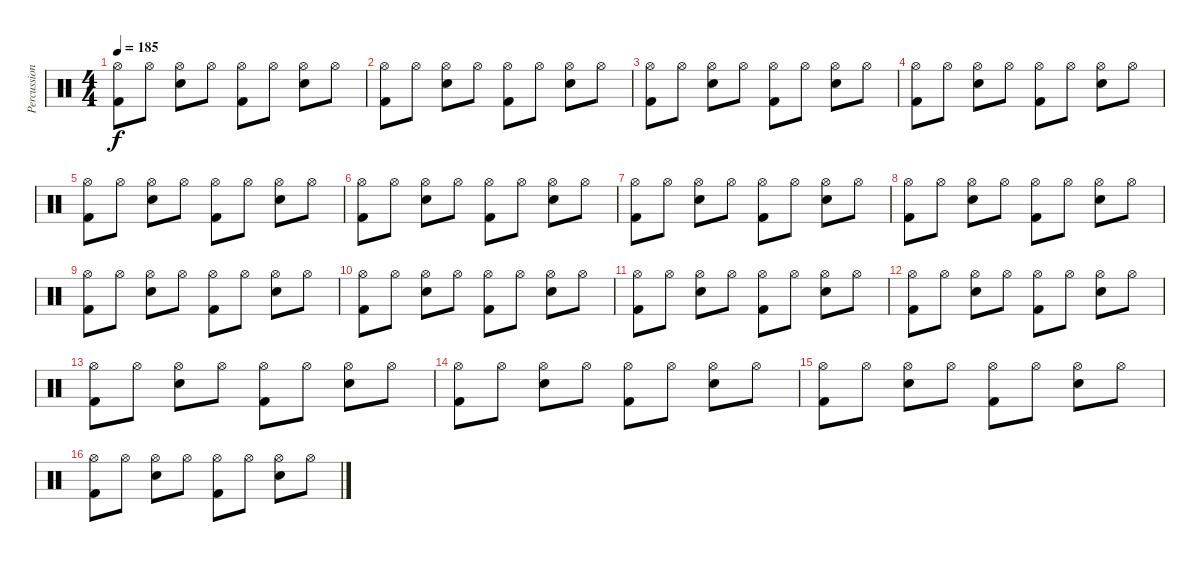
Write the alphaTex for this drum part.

\track ("Percussion" "Percussion") {instrument percussion}
\staff {score}
\articulation defaults
\ts (4 4)
\tempo 185
\clef neutral
\ks c
("Hi-Hat (open)" "Kick (hit) 2").8{dy f} "Hi-Hat (open)".8 ("Hi-Hat (open)" "Snare (hit) 2").8 "Hi-Hat (open)".8 ("Hi-Hat (open)" "Kick (hit) 2").8 "Hi-Hat (open)".8 ("Hi-Hat (open)" "Snare (hit) 2").8 "Hi-Hat (open)".8 |
("Hi-Hat (open)" "Kick (hit) 2").8 "Hi-Hat (open)".8 ("Hi-Hat (open)" "Snare (hit) 2").8 "Hi-Hat (open)".8 ("Hi-Hat (open)" "Kick (hit) 2").8 "Hi-Hat (open)".8 ("Hi-Hat (open)" "Snare (hit) 2").8 "Hi-Hat (open)".8 |
("Hi-Hat (open)" "Kick (hit) 2").8 "Hi-Hat (open)".8 ("Hi-Hat (open)" "Snare (hit) 2").8 "Hi-Hat (open)".8 ("Hi-Hat (open)" "Kick (hit) 2").8 "Hi-Hat (open)".8 ("Hi-Hat (open)" "Snare (hit) 2").8 "Hi-Hat (open)".8 |
("Hi-Hat (open)" "Kick (hit) 2").8 "Hi-Hat (open)".8 ("Hi-Hat (open)" "Snare (hit) 2").8 "Hi-Hat (open)".8 ("Hi-Hat (open)" "Kick (hit) 2").8 "Hi-Hat (open)".8 ("Hi-Hat (open)" "Snare (hit) 2").8 "Hi-Hat (open)".8 |
("Hi-Hat (open)" "Kick (hit) 2").8 "Hi-Hat (open)".8 ("Hi-Hat (open)" "Snare (hit) 2").8 "Hi-Hat (open)".8 ("Hi-Hat (open)" "Kick (hit) 2").8 "Hi-Hat (open)".8 ("Hi-Hat (open)" "Snare (hit) 2").8 "Hi-Hat (open)".8 |
("Hi-Hat (open)" "Kick (hit) 2").8 "Hi-Hat (open)".8 ("Hi-Hat (open)" "Snare (hit) 2").8 "Hi-Hat (open)".8 ("Hi-Hat (open)" "Kick (hit) 2").8 "Hi-Hat (open)".8 ("Hi-Hat (open)" "Snare (hit) 2").8 "Hi-Hat (open)".8 |
("Hi-Hat (open)" "Kick (hit) 2").8 "Hi-Hat (open)".8 ("Hi-Hat (open)" "Snare (hit) 2").8 "Hi-Hat (open)".8 ("Hi-Hat (open)" "Kick (hit) 2").8 "Hi-Hat (open)".8 ("Hi-Hat (open)" "Snare (hit) 2").8 "Hi-Hat (open)".8 |
("Hi-Hat (open)" "Kick (hit) 2").8 "Hi-Hat (open)".8 ("Hi-Hat (open)" "Snare (hit) 2").8 "Hi-Hat (open)".8 ("Hi-Hat (open)" "Kick (hit) 2").8 "Hi-Hat (open)".8 ("Hi-Hat (open)" "Snare (hit) 2").8 "Hi-Hat (open)".8 |
("Hi-Hat (open)" "Kick (hit) 2").8 "Hi-Hat (open)".8 ("Hi-Hat (open)" "Snare (hit) 2").8 "Hi-Hat (open)".8 ("Hi-Hat (open)" "Kick (hit) 2").8 "Hi-Hat (open)".8 ("Hi-Hat (open)" "Snare (hit) 2").8 "Hi-Hat (open)".8 |
("Hi-Hat (open)" "Kick (hit) 2").8 "Hi-Hat (open)".8 ("Hi-Hat (open)" "Snare (hit) 2").8 "Hi-Hat (open)".8 ("Hi-Hat (open)" "Kick (hit) 2").8 "Hi-Hat (open)".8 ("Hi-Hat (open)" "Snare (hit) 2").8 "Hi-Hat (open)".8 |
("Hi-Hat (open)" "Kick (hit) 2").8 "Hi-Hat (open)".8 ("Hi-Hat (open)" "Snare (hit) 2").8 "Hi-Hat (open)".8 ("Hi-Hat (open)" "Kick (hit) 2").8 "Hi-Hat (open)".8 ("Hi-Hat (open)" "Snare (hit) 2").8 "Hi-Hat (open)".8 |
("Hi-Hat (open)" "Kick (hit) 2").8 "Hi-Hat (open)".8 ("Hi-Hat (open)" "Snare (hit) 2").8 "Hi-Hat (open)".8 ("Hi-Hat (open)" "Kick (hit) 2").8 "Hi-Hat (open)".8 ("Hi-Hat (open)" "Snare (hit) 2").8 "Hi-Hat (open)".8 |
("Hi-Hat (open)" "Kick (hit) 2").8 "Hi-Hat (open)".8 ("Hi-Hat (open)" "Snare (hit) 2").8 "Hi-Hat (open)".8 ("Hi-Hat (open)" "Kick (hit) 2").8 "Hi-Hat (open)".8 ("Hi-Hat (open)" "Snare (hit) 2").8 "Hi-Hat (open)".8 |
("Hi-Hat (open)" "Kick (hit) 2").8 "Hi-Hat (open)".8 ("Hi-Hat (open)" "Snare (hit) 2").8 "Hi-Hat (open)".8 ("Hi-Hat (open)" "Kick (hit) 2").8 "Hi-Hat (open)".8 ("Hi-Hat (open)" "Snare (hit) 2").8 "Hi-Hat (open)".8 |
("Hi-Hat (open)" "Kick (hit) 2").8 "Hi-Hat (open)".8 ("Hi-Hat (open)" "Snare (hit) 2").8 "Hi-Hat (open)".8 ("Hi-Hat (open)" "Kick (hit) 2").8 "Hi-Hat (open)".8 ("Hi-Hat (open)" "Snare (hit) 2").8 "Hi-Hat (open)".8 |
("Hi-Hat (open)" "Kick (hit) 2").8 "Hi-Hat (open)".8 ("Hi-Hat (open)" "Snare (hit) 2").8 "Hi-Hat (open)".8 ("Hi-Hat (open)" "Kick (hit) 2").8 "Hi-Hat (open)".8 ("Hi-Hat (open)" "Snare (hit) 2").8 "Hi-Hat (open)".8
